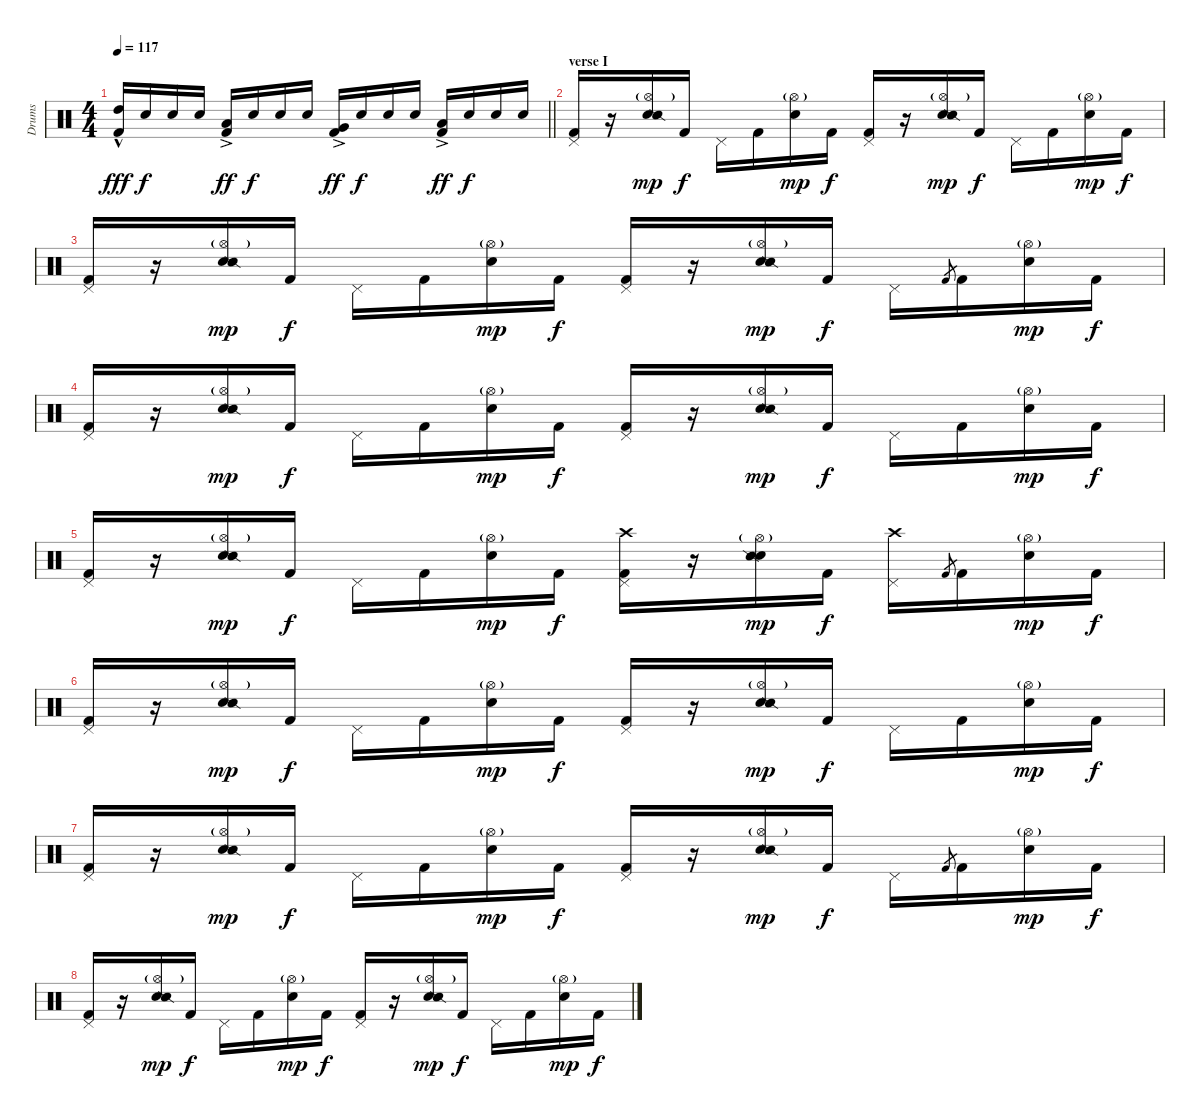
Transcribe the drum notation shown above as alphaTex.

\track ("Drums" "Drums") {instrument percussion}
\staff {score}
\articulation defaults
\ts (4 4)
\tempo 117
\clef neutral
\barLineRight lightlight
\ks c
("High Tom (hit)"{hac} "Kick (hit) 2").16{dy fff} "Electric Snare (hit)".16{dy f} "Electric Snare (hit)".16 "Electric Snare (hit)".16 ("Low Tom (hit)"{ac} "Kick (hit) 2").16{dy ff} "Electric Snare (hit)".16{dy f} "Electric Snare (hit)".16 "Electric Snare (hit)".16 ("Very Low Tom (hit)"{ac} "Kick (hit) 2").16{dy ff} "Electric Snare (hit)".16{dy f} "Electric Snare (hit)".16 "Electric Snare (hit)".16 ("Low Floor Tom (hit)"{ac} "Kick (hit) 2").16{dy ff} "Electric Snare (hit)".16{dy f} "Electric Snare (hit)".16 "Electric Snare (hit)".16 |
\section ("" "verse I")
("Pedal Hi-Hat (hit)" "Kick (hit) 2").16 r.16 ("Hi-Hat (open)"{g} "Electric Snare (hit)" "Snare (side stick) 2").16{dy mp} "Kick (hit) 2".16{dy f} "Pedal Hi-Hat (hit)".16 "Kick (hit) 2".16 ("Hi-Hat (open)"{g} "Electric Snare (hit)").16{dy mp} "Kick (hit) 2".16{dy f} ("Pedal Hi-Hat (hit)" "Kick (hit) 2").16 r.16 ("Hi-Hat (open)"{g} "Electric Snare (hit)" "Snare (side stick) 2").16{dy mp} "Kick (hit) 2".16{dy f} "Pedal Hi-Hat (hit)".16 "Kick (hit) 2".16 ("Hi-Hat (open)"{g} "Electric Snare (hit)").16{dy mp} "Kick (hit) 2".16{dy f} |
("Pedal Hi-Hat (hit)" "Kick (hit) 2").16 r.16 ("Hi-Hat (open)"{g} "Electric Snare (hit)" "Snare (side stick) 2").16{dy mp} "Kick (hit) 2".16{dy f} "Pedal Hi-Hat (hit)".16 "Kick (hit) 2".16 ("Hi-Hat (open)"{g} "Electric Snare (hit)").16{dy mp} "Kick (hit) 2".16{dy f} ("Pedal Hi-Hat (hit)" "Kick (hit) 2").16 r.16 ("Hi-Hat (open)"{g} "Electric Snare (hit)" "Snare (side stick) 2").16{dy mp} "Kick (hit) 2".16{dy f} "Pedal Hi-Hat (hit)".16 "Kick (hit) 2".8{gr} "Kick (hit) 2".16 ("Hi-Hat (open)"{g} "Electric Snare (hit)").16{dy mp} "Kick (hit) 2".16{dy f} |
("Pedal Hi-Hat (hit)" "Kick (hit) 2").16 r.16 ("Hi-Hat (open)"{g} "Electric Snare (hit)" "Snare (side stick) 2").16{dy mp} "Kick (hit) 2".16{dy f} "Pedal Hi-Hat (hit)".16 "Kick (hit) 2".16 ("Hi-Hat (open)"{g} "Electric Snare (hit)").16{dy mp} "Kick (hit) 2".16{dy f} ("Pedal Hi-Hat (hit)" "Kick (hit) 2").16 r.16 ("Hi-Hat (open)"{g} "Electric Snare (hit)" "Snare (side stick) 2").16{dy mp} "Kick (hit) 2".16{dy f} "Pedal Hi-Hat (hit)".16 "Kick (hit) 2".16 ("Hi-Hat (open)"{g} "Electric Snare (hit)").16{dy mp} "Kick (hit) 2".16{dy f} |
("Pedal Hi-Hat (hit)" "Kick (hit) 2").16 r.16 ("Hi-Hat (open)"{g} "Electric Snare (hit)" "Snare (side stick) 2").16{dy mp} "Kick (hit) 2".16{dy f} "Pedal Hi-Hat (hit)".16 "Kick (hit) 2".16 ("Hi-Hat (open)"{g} "Electric Snare (hit)").16{dy mp} "Kick (hit) 2".16{dy f} ("Pedal Hi-Hat (hit)" "Crash high (hit)" "Kick (hit) 2").16 r.16 ("Hi-Hat (open)"{g} "Electric Snare (hit)" "Snare (side stick) 2").16{dy mp} "Kick (hit) 2".16{dy f} ("Pedal Hi-Hat (hit)" "Crash high (hit)").16 "Kick (hit) 2".8{gr} "Kick (hit) 2".16 ("Hi-Hat (open)"{g} "Electric Snare (hit)").16{dy mp} "Kick (hit) 2".16{dy f} |
("Pedal Hi-Hat (hit)" "Kick (hit) 2").16 r.16 ("Hi-Hat (open)"{g} "Electric Snare (hit)" "Snare (side stick) 2").16{dy mp} "Kick (hit) 2".16{dy f} "Pedal Hi-Hat (hit)".16 "Kick (hit) 2".16 ("Hi-Hat (open)"{g} "Electric Snare (hit)").16{dy mp} "Kick (hit) 2".16{dy f} ("Pedal Hi-Hat (hit)" "Kick (hit) 2").16 r.16 ("Hi-Hat (open)"{g} "Electric Snare (hit)" "Snare (side stick) 2").16{dy mp} "Kick (hit) 2".16{dy f} "Pedal Hi-Hat (hit)".16 "Kick (hit) 2".16 ("Hi-Hat (open)"{g} "Electric Snare (hit)").16{dy mp} "Kick (hit) 2".16{dy f} |
("Pedal Hi-Hat (hit)" "Kick (hit) 2").16 r.16 ("Hi-Hat (open)"{g} "Electric Snare (hit)" "Snare (side stick) 2").16{dy mp} "Kick (hit) 2".16{dy f} "Pedal Hi-Hat (hit)".16 "Kick (hit) 2".16 ("Hi-Hat (open)"{g} "Electric Snare (hit)").16{dy mp} "Kick (hit) 2".16{dy f} ("Pedal Hi-Hat (hit)" "Kick (hit) 2").16 r.16 ("Hi-Hat (open)"{g} "Electric Snare (hit)" "Snare (side stick) 2").16{dy mp} "Kick (hit) 2".16{dy f} "Pedal Hi-Hat (hit)".16 "Kick (hit) 2".8{gr} "Kick (hit) 2".16 ("Hi-Hat (open)"{g} "Electric Snare (hit)").16{dy mp} "Kick (hit) 2".16{dy f} |
("Pedal Hi-Hat (hit)" "Kick (hit) 2").16 r.16 ("Hi-Hat (open)"{g} "Electric Snare (hit)" "Snare (side stick) 2").16{dy mp} "Kick (hit) 2".16{dy f} "Pedal Hi-Hat (hit)".16 "Kick (hit) 2".16 ("Hi-Hat (open)"{g} "Electric Snare (hit)").16{dy mp} "Kick (hit) 2".16{dy f} ("Pedal Hi-Hat (hit)" "Kick (hit) 2").16 r.16 ("Hi-Hat (open)"{g} "Electric Snare (hit)" "Snare (side stick) 2").16{dy mp} "Kick (hit) 2".16{dy f} "Pedal Hi-Hat (hit)".16 "Kick (hit) 2".16 ("Hi-Hat (open)"{g} "Electric Snare (hit)").16{dy mp} "Kick (hit) 2".16{dy f}
